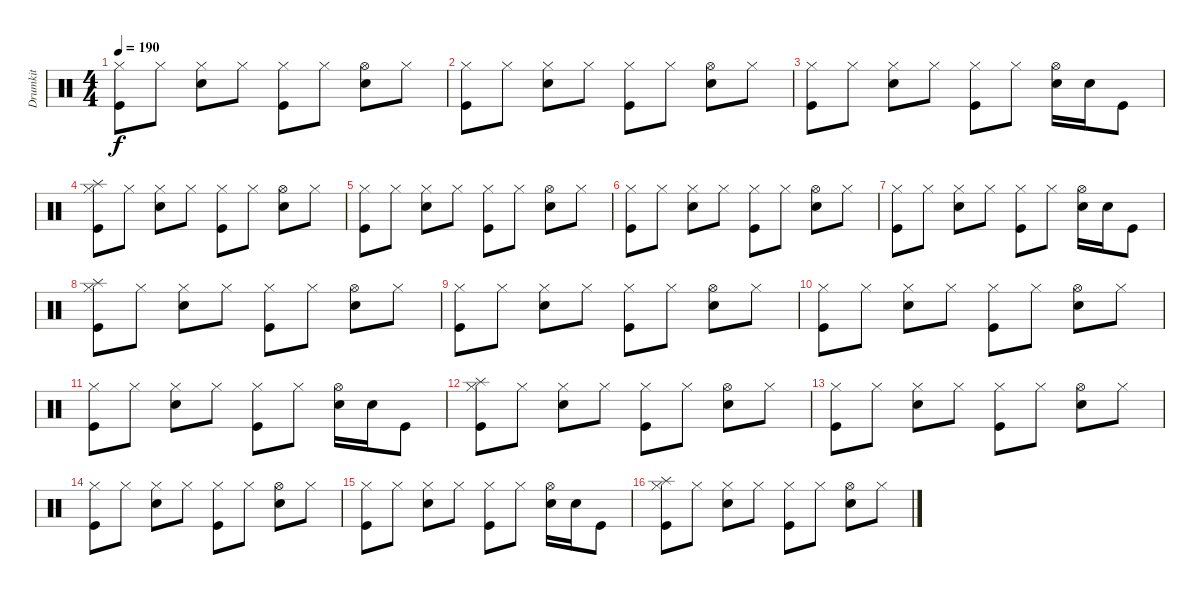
\track ("Drumkit" "Drumkit") {instrument percussion}
\staff {score}
\articulation defaults
\ts (4 4)
\tempo 190
\clef neutral
\ks c
("Kick (hit)" "Hi-Hat (closed)").8{dy f} "Hi-Hat (closed)".8 ("Snare (hit) 2" "Hi-Hat (closed)").8 "Hi-Hat (closed)".8 ("Hi-Hat (closed)" "Kick (hit)").8 "Hi-Hat (closed)".8 ("Hi-Hat (open)" "Snare (hit) 2").8 "Hi-Hat (closed)".8 |
("Kick (hit)" "Hi-Hat (closed)").8 "Hi-Hat (closed)".8 ("Snare (hit) 2" "Hi-Hat (closed)").8 "Hi-Hat (closed)".8 ("Hi-Hat (closed)" "Kick (hit)").8 "Hi-Hat (closed)".8 ("Hi-Hat (open)" "Snare (hit) 2").8 "Hi-Hat (closed)".8 |
("Kick (hit)" "Hi-Hat (closed)").8 "Hi-Hat (closed)".8 ("Snare (hit) 2" "Hi-Hat (closed)").8 "Hi-Hat (closed)".8 ("Hi-Hat (closed)" "Kick (hit)").8 "Hi-Hat (closed)".8 ("Hi-Hat (open)" "Snare (hit) 2").16 "Snare (hit) 2".16 "Kick (hit)".8 |
("Kick (hit)" "Hi-Hat (closed)" "Splash (hit)").8 "Hi-Hat (closed)".8 ("Snare (hit) 2" "Hi-Hat (closed)").8 "Hi-Hat (closed)".8 ("Hi-Hat (closed)" "Kick (hit)").8 "Hi-Hat (closed)".8 ("Hi-Hat (open)" "Snare (hit) 2").8 "Hi-Hat (closed)".8 |
("Kick (hit)" "Hi-Hat (closed)").8 "Hi-Hat (closed)".8 ("Snare (hit) 2" "Hi-Hat (closed)").8 "Hi-Hat (closed)".8 ("Hi-Hat (closed)" "Kick (hit)").8 "Hi-Hat (closed)".8 ("Hi-Hat (open)" "Snare (hit) 2").8 "Hi-Hat (closed)".8 |
("Kick (hit)" "Hi-Hat (closed)").8 "Hi-Hat (closed)".8 ("Snare (hit) 2" "Hi-Hat (closed)").8 "Hi-Hat (closed)".8 ("Hi-Hat (closed)" "Kick (hit)").8 "Hi-Hat (closed)".8 ("Hi-Hat (open)" "Snare (hit) 2").8 "Hi-Hat (closed)".8 |
("Kick (hit)" "Hi-Hat (closed)").8 "Hi-Hat (closed)".8 ("Snare (hit) 2" "Hi-Hat (closed)").8 "Hi-Hat (closed)".8 ("Hi-Hat (closed)" "Kick (hit)").8 "Hi-Hat (closed)".8 ("Hi-Hat (open)" "Snare (hit) 2").16 "Snare (hit) 2".16 "Kick (hit)".8 |
("Kick (hit)" "Hi-Hat (closed)" "Splash (hit)").8 "Hi-Hat (closed)".8 ("Snare (hit) 2" "Hi-Hat (closed)").8 "Hi-Hat (closed)".8 ("Hi-Hat (closed)" "Kick (hit)").8 "Hi-Hat (closed)".8 ("Hi-Hat (open)" "Snare (hit) 2").8 "Hi-Hat (closed)".8 |
("Kick (hit)" "Hi-Hat (closed)").8 "Hi-Hat (closed)".8 ("Snare (hit) 2" "Hi-Hat (closed)").8 "Hi-Hat (closed)".8 ("Hi-Hat (closed)" "Kick (hit)").8 "Hi-Hat (closed)".8 ("Hi-Hat (open)" "Snare (hit) 2").8 "Hi-Hat (closed)".8 |
("Kick (hit)" "Hi-Hat (closed)").8 "Hi-Hat (closed)".8 ("Snare (hit) 2" "Hi-Hat (closed)").8 "Hi-Hat (closed)".8 ("Hi-Hat (closed)" "Kick (hit)").8 "Hi-Hat (closed)".8 ("Hi-Hat (open)" "Snare (hit) 2").8 "Hi-Hat (closed)".8 |
("Kick (hit)" "Hi-Hat (closed)").8 "Hi-Hat (closed)".8 ("Snare (hit) 2" "Hi-Hat (closed)").8 "Hi-Hat (closed)".8 ("Hi-Hat (closed)" "Kick (hit)").8 "Hi-Hat (closed)".8 ("Hi-Hat (open)" "Snare (hit) 2").16 "Snare (hit) 2".16 "Kick (hit)".8 |
("Kick (hit)" "Hi-Hat (closed)" "Splash (hit)").8 "Hi-Hat (closed)".8 ("Snare (hit) 2" "Hi-Hat (closed)").8 "Hi-Hat (closed)".8 ("Hi-Hat (closed)" "Kick (hit)").8 "Hi-Hat (closed)".8 ("Hi-Hat (open)" "Snare (hit) 2").8 "Hi-Hat (closed)".8 |
("Kick (hit)" "Hi-Hat (closed)").8 "Hi-Hat (closed)".8 ("Snare (hit) 2" "Hi-Hat (closed)").8 "Hi-Hat (closed)".8 ("Hi-Hat (closed)" "Kick (hit)").8 "Hi-Hat (closed)".8 ("Hi-Hat (open)" "Snare (hit) 2").8 "Hi-Hat (closed)".8 |
("Kick (hit)" "Hi-Hat (closed)").8 "Hi-Hat (closed)".8 ("Snare (hit) 2" "Hi-Hat (closed)").8 "Hi-Hat (closed)".8 ("Hi-Hat (closed)" "Kick (hit)").8 "Hi-Hat (closed)".8 ("Hi-Hat (open)" "Snare (hit) 2").8 "Hi-Hat (closed)".8 |
("Kick (hit)" "Hi-Hat (closed)").8 "Hi-Hat (closed)".8 ("Snare (hit) 2" "Hi-Hat (closed)").8 "Hi-Hat (closed)".8 ("Hi-Hat (closed)" "Kick (hit)").8 "Hi-Hat (closed)".8 ("Hi-Hat (open)" "Snare (hit) 2").16 "Snare (hit) 2".16 "Kick (hit)".8 |
("Kick (hit)" "Hi-Hat (closed)" "Splash (hit)").8 "Hi-Hat (closed)".8 ("Snare (hit) 2" "Hi-Hat (closed)").8 "Hi-Hat (closed)".8 ("Hi-Hat (closed)" "Kick (hit)").8 "Hi-Hat (closed)".8 ("Hi-Hat (open)" "Snare (hit) 2").8 "Hi-Hat (closed)".8
